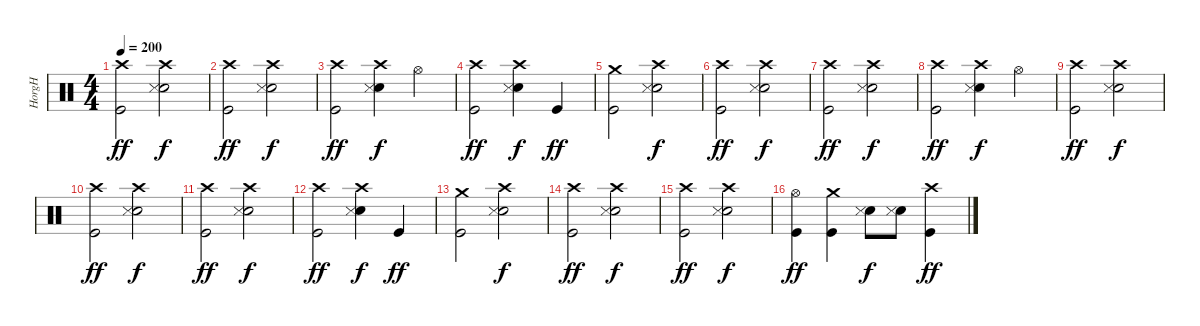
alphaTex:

\track ("HorgH" "HorgH") {instrument percussion}
\staff {score}
\articulation defaults
\ts (4 4)
\section ("" "")
\tempo 200
\clef neutral
\ks c
("Crash high (hit)" "Kick (hit)").2{dy ff} ("Crash high (hit)" "Electric Snare (hit)" "Snare (side stick) 3").2{dy f} |
("Crash high (hit)" "Kick (hit)").2{dy ff} ("Crash high (hit)" "Electric Snare (hit)" "Snare (side stick) 3").2{dy f} |
("Crash high (hit)" "Kick (hit)").2{dy ff} ("Crash high (hit)" "Electric Snare (hit)" "Snare (side stick) 3").4{dy f} "Hi-Hat (open)".4 |
("Crash high (hit)" "Kick (hit)").2{dy ff} ("Crash high (hit)" "Electric Snare (hit)" "Snare (side stick) 3").4{dy f} "Kick (hit)".4{dy ff} |
("Crash medium (hit)" "Kick (hit)").2 ("Crash high (hit)" "Electric Snare (hit)" "Snare (side stick) 3").2{dy f} |
("Crash high (hit)" "Kick (hit)").2{dy ff} ("Crash high (hit)" "Electric Snare (hit)" "Snare (side stick) 3").2{dy f} |
("Crash high (hit)" "Kick (hit)").2{dy ff} ("Crash high (hit)" "Electric Snare (hit)" "Snare (side stick) 3").2{dy f} |
("Crash high (hit)" "Kick (hit)").2{dy ff} ("Crash high (hit)" "Electric Snare (hit)" "Snare (side stick) 3").4{dy f} "Hi-Hat (open)".4 |
("Crash high (hit)" "Kick (hit)").2{dy ff} ("Crash high (hit)" "Electric Snare (hit)" "Snare (side stick) 3").2{dy f} |
("Crash high (hit)" "Kick (hit)").2{dy ff} ("Crash high (hit)" "Electric Snare (hit)" "Snare (side stick) 3").2{dy f} |
("Crash high (hit)" "Kick (hit)").2{dy ff} ("Crash high (hit)" "Electric Snare (hit)" "Snare (side stick) 3").2{dy f} |
("Crash high (hit)" "Kick (hit)").2{dy ff} ("Crash high (hit)" "Electric Snare (hit)" "Snare (side stick) 3").4{dy f} "Kick (hit)".4{dy ff} |
("Crash medium (hit)" "Kick (hit)").2 ("Crash high (hit)" "Electric Snare (hit)" "Snare (side stick) 3").2{dy f} |
("Crash high (hit)" "Kick (hit)").2{dy ff} ("Crash high (hit)" "Electric Snare (hit)" "Snare (side stick) 3").2{dy f} |
("Crash high (hit)" "Kick (hit)").2{dy ff} ("Crash high (hit)" "Electric Snare (hit)" "Snare (side stick) 3").2{dy f} |
("Hi-Hat (open)" "Kick (hit)").4{dy ff} ("Crash medium (hit)" "Kick (hit)").4 ("Electric Snare (hit)" "Snare (side stick) 3").8{dy f} ("Electric Snare (hit)" "Snare (side stick) 3").8 ("Crash high (hit)" "Kick (hit)").4{dy ff}
